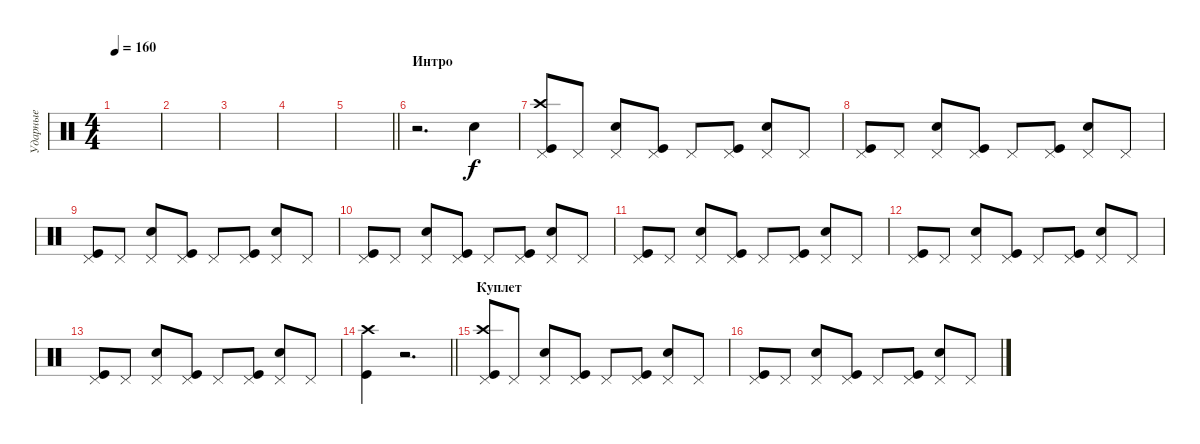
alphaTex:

\track ("Ударные" "Ударные") {instrument percussion}
\staff {score}
\articulation defaults
\ts (4 4)
\tempo 160
\clef neutral
\ks c
|
|
|
|
\barLineRight lightlight
|
\section ("" "Интро")
r.2{d} "Snare (hit) 2".4 |
("Pedal Hi-Hat (hit)" "Crash high (hit)" "Kick (hit)").8 "Pedal Hi-Hat (hit)".8 ("Pedal Hi-Hat (hit)" "Snare (hit) 2").8 ("Pedal Hi-Hat (hit)" "Kick (hit)").8 "Pedal Hi-Hat (hit)".8 ("Pedal Hi-Hat (hit)" "Kick (hit)").8 ("Pedal Hi-Hat (hit)" "Snare (hit) 2").8 "Pedal Hi-Hat (hit)".8 |
("Pedal Hi-Hat (hit)" "Kick (hit)").8 "Pedal Hi-Hat (hit)".8 ("Pedal Hi-Hat (hit)" "Snare (hit) 2").8 ("Pedal Hi-Hat (hit)" "Kick (hit)").8 "Pedal Hi-Hat (hit)".8 ("Pedal Hi-Hat (hit)" "Kick (hit)").8 ("Pedal Hi-Hat (hit)" "Snare (hit) 2").8 "Pedal Hi-Hat (hit)".8 |
("Pedal Hi-Hat (hit)" "Kick (hit)").8 "Pedal Hi-Hat (hit)".8 ("Pedal Hi-Hat (hit)" "Snare (hit) 2").8 ("Pedal Hi-Hat (hit)" "Kick (hit)").8 "Pedal Hi-Hat (hit)".8 ("Pedal Hi-Hat (hit)" "Kick (hit)").8 ("Pedal Hi-Hat (hit)" "Snare (hit) 2").8 "Pedal Hi-Hat (hit)".8 |
("Pedal Hi-Hat (hit)" "Kick (hit)").8 "Pedal Hi-Hat (hit)".8 ("Pedal Hi-Hat (hit)" "Snare (hit) 2").8 ("Pedal Hi-Hat (hit)" "Kick (hit)").8 "Pedal Hi-Hat (hit)".8 ("Pedal Hi-Hat (hit)" "Kick (hit)").8 ("Pedal Hi-Hat (hit)" "Snare (hit) 2").8 "Pedal Hi-Hat (hit)".8 |
("Pedal Hi-Hat (hit)" "Kick (hit)").8 "Pedal Hi-Hat (hit)".8 ("Pedal Hi-Hat (hit)" "Snare (hit) 2").8 ("Pedal Hi-Hat (hit)" "Kick (hit)").8 "Pedal Hi-Hat (hit)".8 ("Pedal Hi-Hat (hit)" "Kick (hit)").8 ("Pedal Hi-Hat (hit)" "Snare (hit) 2").8 "Pedal Hi-Hat (hit)".8 |
("Pedal Hi-Hat (hit)" "Kick (hit)").8 "Pedal Hi-Hat (hit)".8 ("Pedal Hi-Hat (hit)" "Snare (hit) 2").8 ("Pedal Hi-Hat (hit)" "Kick (hit)").8 "Pedal Hi-Hat (hit)".8 ("Pedal Hi-Hat (hit)" "Kick (hit)").8 ("Pedal Hi-Hat (hit)" "Snare (hit) 2").8 "Pedal Hi-Hat (hit)".8 |
("Pedal Hi-Hat (hit)" "Kick (hit)").8 "Pedal Hi-Hat (hit)".8 ("Pedal Hi-Hat (hit)" "Snare (hit) 2").8 ("Pedal Hi-Hat (hit)" "Kick (hit)").8 "Pedal Hi-Hat (hit)".8 ("Pedal Hi-Hat (hit)" "Kick (hit)").8 ("Pedal Hi-Hat (hit)" "Snare (hit) 2").8 "Pedal Hi-Hat (hit)".8 |
\barLineRight lightlight
("Crash high (hit)" "Kick (hit)").4 r.2{d} |
\section ("" "Куплет")
("Pedal Hi-Hat (hit)" "Crash high (hit)" "Kick (hit)").8 "Pedal Hi-Hat (hit)".8 ("Pedal Hi-Hat (hit)" "Snare (hit) 2").8 ("Pedal Hi-Hat (hit)" "Kick (hit)").8 "Pedal Hi-Hat (hit)".8 ("Pedal Hi-Hat (hit)" "Kick (hit)").8 ("Pedal Hi-Hat (hit)" "Snare (hit) 2").8 "Pedal Hi-Hat (hit)".8 |
("Pedal Hi-Hat (hit)" "Kick (hit)").8 "Pedal Hi-Hat (hit)".8 ("Pedal Hi-Hat (hit)" "Snare (hit) 2").8 ("Pedal Hi-Hat (hit)" "Kick (hit)").8 "Pedal Hi-Hat (hit)".8 ("Pedal Hi-Hat (hit)" "Kick (hit)").8 ("Pedal Hi-Hat (hit)" "Snare (hit) 2").8 "Pedal Hi-Hat (hit)".8
